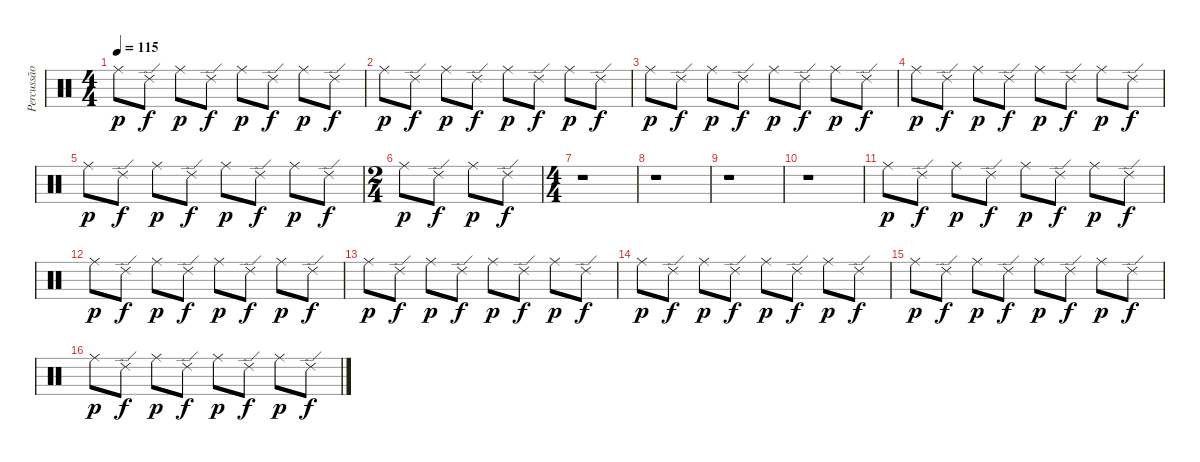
\track ("Percussão" "Percussão") {instrument percussion}
\staff {score}
\articulation defaults
\ts (4 4)
\tempo 115
\clef neutral
\ks c "Ride (middle)".8{dy p} "Ride (edge) 2".8{dy f} "Ride (middle)".8{dy p} "Ride (edge) 2".8{dy f} "Ride (middle)".8{dy p} "Ride (edge) 2".8{dy f} "Ride (middle)".8{dy p} "Ride (edge) 2".8{dy f}
|
"Ride (middle)".8{dy p} "Ride (edge) 2".8{dy f} "Ride (middle)".8{dy p} "Ride (edge) 2".8{dy f} "Ride (middle)".8{dy p} "Ride (edge) 2".8{dy f} "Ride (middle)".8{dy p} "Ride (edge) 2".8{dy f} |
"Ride (middle)".8{dy p} "Ride (edge) 2".8{dy f} "Ride (middle)".8{dy p} "Ride (edge) 2".8{dy f} "Ride (middle)".8{dy p} "Ride (edge) 2".8{dy f} "Ride (middle)".8{dy p} "Ride (edge) 2".8{dy f} |
"Ride (middle)".8{dy p} "Ride (edge) 2".8{dy f} "Ride (middle)".8{dy p} "Ride (edge) 2".8{dy f} "Ride (middle)".8{dy p} "Ride (edge) 2".8{dy f} "Ride (middle)".8{dy p} "Ride (edge) 2".8{dy f} |
"Ride (middle)".8{dy p} "Ride (edge) 2".8{dy f} "Ride (middle)".8{dy p} "Ride (edge) 2".8{dy f} "Ride (middle)".8{dy p} "Ride (edge) 2".8{dy f} "Ride (middle)".8{dy p} "Ride (edge) 2".8{dy f} |
\ts (2 4)
"Ride (middle)".8{dy p} "Ride (edge) 2".8{dy f} "Ride (middle)".8{dy p} "Ride (edge) 2".8{dy f} |
\ts (4 4)
r.1 |
r.1 |
r.1 |
r.1 |
"Ride (middle)".8{dy p} "Ride (edge) 2".8{dy f} "Ride (middle)".8{dy p} "Ride (edge) 2".8{dy f} "Ride (middle)".8{dy p} "Ride (edge) 2".8{dy f} "Ride (middle)".8{dy p} "Ride (edge) 2".8{dy f} |
"Ride (middle)".8{dy p} "Ride (edge) 2".8{dy f} "Ride (middle)".8{dy p} "Ride (edge) 2".8{dy f} "Ride (middle)".8{dy p} "Ride (edge) 2".8{dy f} "Ride (middle)".8{dy p} "Ride (edge) 2".8{dy f} |
"Ride (middle)".8{dy p} "Ride (edge) 2".8{dy f} "Ride (middle)".8{dy p} "Ride (edge) 2".8{dy f} "Ride (middle)".8{dy p} "Ride (edge) 2".8{dy f} "Ride (middle)".8{dy p} "Ride (edge) 2".8{dy f} |
"Ride (middle)".8{dy p} "Ride (edge) 2".8{dy f} "Ride (middle)".8{dy p} "Ride (edge) 2".8{dy f} "Ride (middle)".8{dy p} "Ride (edge) 2".8{dy f} "Ride (middle)".8{dy p} "Ride (edge) 2".8{dy f} |
"Ride (middle)".8{dy p} "Ride (edge) 2".8{dy f} "Ride (middle)".8{dy p} "Ride (edge) 2".8{dy f} "Ride (middle)".8{dy p} "Ride (edge) 2".8{dy f} "Ride (middle)".8{dy p} "Ride (edge) 2".8{dy f} |
"Ride (middle)".8{dy p} "Ride (edge) 2".8{dy f} "Ride (middle)".8{dy p} "Ride (edge) 2".8{dy f} "Ride (middle)".8{dy p} "Ride (edge) 2".8{dy f} "Ride (middle)".8{dy p} "Ride (edge) 2".8{dy f}
